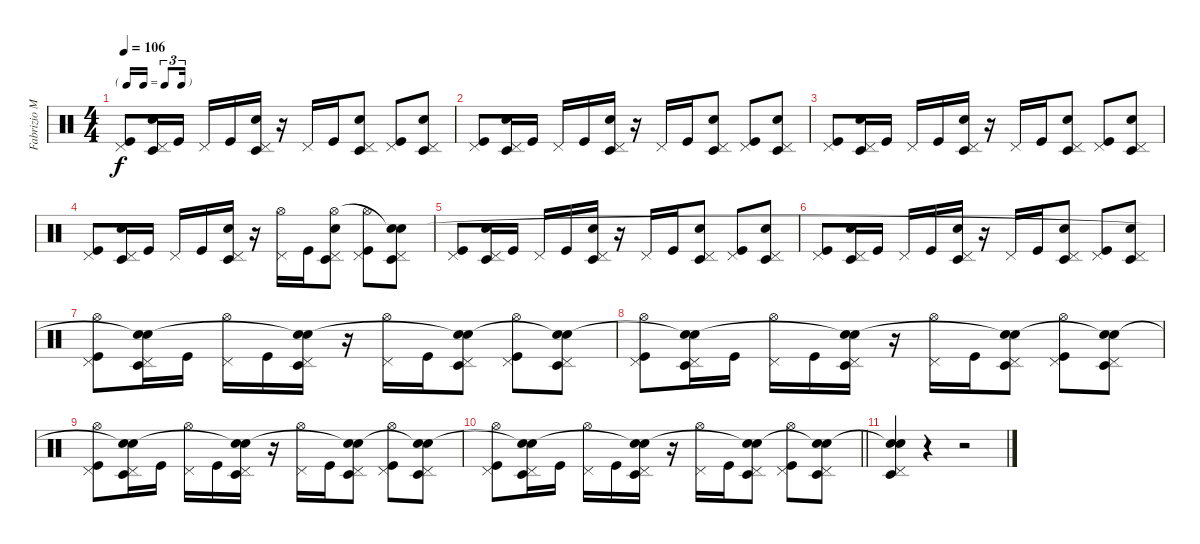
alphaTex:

\track ("Fabrizio Moretti" "Fabrizio M") {instrument percussion}
\staff {score}
\articulation defaults
\ts (4 4)
\tf triplet16th
\tempo 106
\clef neutral
\ks c
("Pedal Hi-Hat (hit)" "Kick (hit)").8{dy f} ("Pedal Hi-Hat (hit)" "Electric Snare (hit)" "Timbale low (hit)").16 "Kick (hit)".16 "Pedal Hi-Hat (hit)".16 "Kick (hit)".16 ("Pedal Hi-Hat (hit)" "Timbale low (hit)" "Electric Snare (hit)").16 r.16 "Pedal Hi-Hat (hit)".16 "Kick (hit)".16 ("Pedal Hi-Hat (hit)" "Electric Snare (hit)" "Timbale low (hit)").8 ("Pedal Hi-Hat (hit)" "Kick (hit)").8 ("Pedal Hi-Hat (hit)" "Electric Snare (hit)" "Timbale low (hit)").8 |
("Pedal Hi-Hat (hit)" "Kick (hit)").8 ("Pedal Hi-Hat (hit)" "Electric Snare (hit)" "Timbale low (hit)").16 "Kick (hit)".16 "Pedal Hi-Hat (hit)".16 "Kick (hit)".16 ("Pedal Hi-Hat (hit)" "Timbale low (hit)" "Electric Snare (hit)").16 r.16 "Pedal Hi-Hat (hit)".16 "Kick (hit)".16 ("Pedal Hi-Hat (hit)" "Electric Snare (hit)" "Timbale low (hit)").8 ("Pedal Hi-Hat (hit)" "Kick (hit)").8 ("Pedal Hi-Hat (hit)" "Electric Snare (hit)" "Timbale low (hit)").8 |
("Pedal Hi-Hat (hit)" "Kick (hit)").8 ("Pedal Hi-Hat (hit)" "Electric Snare (hit)" "Timbale low (hit)").16 "Kick (hit)".16 "Pedal Hi-Hat (hit)".16 "Kick (hit)".16 ("Pedal Hi-Hat (hit)" "Timbale low (hit)" "Electric Snare (hit)").16 r.16 "Pedal Hi-Hat (hit)".16 "Kick (hit)".16 ("Pedal Hi-Hat (hit)" "Electric Snare (hit)" "Timbale low (hit)").8 ("Pedal Hi-Hat (hit)" "Kick (hit)").8 ("Pedal Hi-Hat (hit)" "Electric Snare (hit)" "Timbale low (hit)").8 |
("Pedal Hi-Hat (hit)" "Kick (hit)").8 ("Pedal Hi-Hat (hit)" "Electric Snare (hit)" "Timbale low (hit)").16 "Kick (hit)".16 "Pedal Hi-Hat (hit)".16 "Kick (hit)".16 ("Pedal Hi-Hat (hit)" "Timbale low (hit)" "Electric Snare (hit)").16 r.16 ("Pedal Hi-Hat (hit)" "Hi-Hat (open)").16 "Kick (hit)".16 ("Pedal Hi-Hat (hit)" "Electric Snare (hit)" "Timbale low (hit)" "Hi-Hat (open)").8 ("Pedal Hi-Hat (hit)" "Hi-Hat (open)" "Kick (hit)").8 ("Pedal Hi-Hat (hit)" "Electric Snare (hit)" "Timbale low (hit)" "Snare (hit)"{t}).8 |
("Pedal Hi-Hat (hit)" "Kick (hit)").8 ("Pedal Hi-Hat (hit)" "Electric Snare (hit)" "Timbale low (hit)").16 "Kick (hit)".16 "Pedal Hi-Hat (hit)".16 "Kick (hit)".16 ("Pedal Hi-Hat (hit)" "Timbale low (hit)" "Electric Snare (hit)").16 r.16 "Pedal Hi-Hat (hit)".16 "Kick (hit)".16 ("Pedal Hi-Hat (hit)" "Electric Snare (hit)" "Timbale low (hit)").8 ("Pedal Hi-Hat (hit)" "Kick (hit)").8 ("Pedal Hi-Hat (hit)" "Electric Snare (hit)" "Timbale low (hit)").8 |
("Pedal Hi-Hat (hit)" "Kick (hit)").8 ("Pedal Hi-Hat (hit)" "Electric Snare (hit)" "Timbale low (hit)").16 "Kick (hit)".16 "Pedal Hi-Hat (hit)".16 "Kick (hit)".16 ("Pedal Hi-Hat (hit)" "Timbale low (hit)" "Electric Snare (hit)").16 r.16 "Pedal Hi-Hat (hit)".16 "Kick (hit)".16 ("Pedal Hi-Hat (hit)" "Electric Snare (hit)" "Timbale low (hit)").8 ("Pedal Hi-Hat (hit)" "Kick (hit)").8 ("Pedal Hi-Hat (hit)" "Electric Snare (hit)" "Timbale low (hit)").8 |
("Pedal Hi-Hat (hit)" "Hi-Hat (open)" "Kick (hit)").8 ("Pedal Hi-Hat (hit)" "Electric Snare (hit)" "Timbale low (hit)" "Snare (hit)"{t}).16 "Kick (hit)".16 ("Pedal Hi-Hat (hit)" "Hi-Hat (open)").16 "Kick (hit)".16 ("Pedal Hi-Hat (hit)" "Timbale low (hit)" "Electric Snare (hit)" "Snare (hit)"{t}).16 r.16 ("Pedal Hi-Hat (hit)" "Hi-Hat (open)").16 "Kick (hit)".16 ("Pedal Hi-Hat (hit)" "Electric Snare (hit)" "Timbale low (hit)" "Snare (hit)"{t}).8 ("Pedal Hi-Hat (hit)" "Hi-Hat (open)" "Kick (hit)").8 ("Pedal Hi-Hat (hit)" "Electric Snare (hit)" "Timbale low (hit)" "Snare (hit)"{t}).8 |
("Pedal Hi-Hat (hit)" "Hi-Hat (open)" "Kick (hit)").8 ("Pedal Hi-Hat (hit)" "Electric Snare (hit)" "Timbale low (hit)" "Snare (hit)"{t}).16 "Kick (hit)".16 ("Pedal Hi-Hat (hit)" "Hi-Hat (open)").16 "Kick (hit)".16 ("Pedal Hi-Hat (hit)" "Timbale low (hit)" "Electric Snare (hit)" "Snare (hit)"{t}).16 r.16 ("Pedal Hi-Hat (hit)" "Hi-Hat (open)").16 "Kick (hit)".16 ("Pedal Hi-Hat (hit)" "Electric Snare (hit)" "Timbale low (hit)" "Snare (hit)"{t}).8 ("Pedal Hi-Hat (hit)" "Hi-Hat (open)" "Kick (hit)").8 ("Pedal Hi-Hat (hit)" "Electric Snare (hit)" "Timbale low (hit)" "Snare (hit)"{t}).8 |
("Pedal Hi-Hat (hit)" "Hi-Hat (open)" "Kick (hit)").8 ("Pedal Hi-Hat (hit)" "Electric Snare (hit)" "Timbale low (hit)" "Snare (hit)"{t}).16 "Kick (hit)".16 ("Pedal Hi-Hat (hit)" "Hi-Hat (open)").16 "Kick (hit)".16 ("Pedal Hi-Hat (hit)" "Timbale low (hit)" "Electric Snare (hit)" "Snare (hit)"{t}).16 r.16 ("Pedal Hi-Hat (hit)" "Hi-Hat (open)").16 "Kick (hit)".16 ("Pedal Hi-Hat (hit)" "Electric Snare (hit)" "Timbale low (hit)" "Snare (hit)"{t}).8 ("Pedal Hi-Hat (hit)" "Hi-Hat (open)" "Kick (hit)").8 ("Pedal Hi-Hat (hit)" "Electric Snare (hit)" "Timbale low (hit)" "Snare (hit)"{t}).8 |
\barLineRight lightlight
("Pedal Hi-Hat (hit)" "Hi-Hat (open)" "Kick (hit)").8 ("Pedal Hi-Hat (hit)" "Electric Snare (hit)" "Timbale low (hit)" "Snare (hit)"{t}).16 "Kick (hit)".16 ("Pedal Hi-Hat (hit)" "Hi-Hat (open)").16 "Kick (hit)".16 ("Pedal Hi-Hat (hit)" "Timbale low (hit)" "Electric Snare (hit)" "Snare (hit)"{t}).16 r.16 ("Pedal Hi-Hat (hit)" "Hi-Hat (open)").16 "Kick (hit)".16 ("Pedal Hi-Hat (hit)" "Electric Snare (hit)" "Timbale low (hit)" "Snare (hit)"{t}).8 ("Pedal Hi-Hat (hit)" "Hi-Hat (open)" "Kick (hit)").8 ("Pedal Hi-Hat (hit)" "Electric Snare (hit)" "Timbale low (hit)" "Snare (hit)"{t}).8 |
("Pedal Hi-Hat (hit)" "Electric Snare (hit)" "Timbale low (hit)" "Snare (hit)"{t}).4 r.4 r.2
